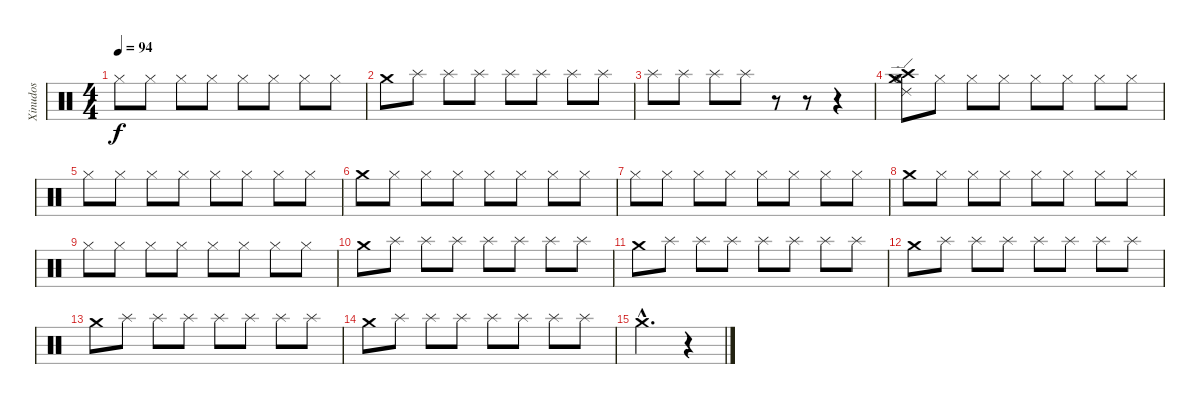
\track ("Xinudos" "Xinudos") {instrument percussion}
\staff {score}
\articulation defaults
\ts (4 4)
\tempo 94
\clef neutral
\ks c "Hi-Hat (closed)".8{dy f} "Hi-Hat (closed)".8 "Hi-Hat (closed)".8 "Hi-Hat (closed)".8 "Hi-Hat (closed)".8 "Hi-Hat (closed)".8 "Hi-Hat (closed)".8 "Hi-Hat (closed)".8
|
"Crash medium (hit)".8 "Splash (hit)".8 "Splash (hit)".8 "Splash (hit)".8 "Splash (hit)".8 "Splash (hit)".8 "Splash (hit)".8 "Splash (hit)".8 |
"Splash (hit)".8 "Splash (hit)".8 "Splash (hit)".8 "Splash (hit)".8 r.8 r.8 r.4 |
("Crash medium (hit)" "Ride (edge) 2" "Hi-Hat (open)" "Crash high (hit)").8 "Hi-Hat (closed)".8 "Hi-Hat (closed)".8 "Hi-Hat (closed)".8 "Hi-Hat (closed)".8 "Hi-Hat (closed)".8 "Hi-Hat (closed)".8 "Hi-Hat (closed)".8 |
"Hi-Hat (closed)".8 "Hi-Hat (closed)".8 "Hi-Hat (closed)".8 "Hi-Hat (closed)".8 "Hi-Hat (closed)".8 "Hi-Hat (closed)".8 "Hi-Hat (closed)".8 "Hi-Hat (closed)".8 |
"Crash medium (hit)".8 "Hi-Hat (closed)".8 "Hi-Hat (closed)".8 "Hi-Hat (closed)".8 "Hi-Hat (closed)".8 "Hi-Hat (closed)".8 "Hi-Hat (closed)".8 "Hi-Hat (closed)".8 |
"Hi-Hat (closed)".8 "Hi-Hat (closed)".8 "Hi-Hat (closed)".8 "Hi-Hat (closed)".8 "Hi-Hat (closed)".8 "Hi-Hat (closed)".8 "Hi-Hat (closed)".8 "Hi-Hat (closed)".8 |
"Crash medium (hit)".8 "Hi-Hat (closed)".8 "Hi-Hat (closed)".8 "Hi-Hat (closed)".8 "Hi-Hat (closed)".8 "Hi-Hat (closed)".8 "Hi-Hat (closed)".8 "Hi-Hat (closed)".8 |
"Hi-Hat (closed)".8 "Hi-Hat (closed)".8 "Hi-Hat (closed)".8 "Hi-Hat (closed)".8 "Hi-Hat (closed)".8 "Hi-Hat (closed)".8 "Hi-Hat (closed)".8 "Hi-Hat (closed)".8 |
"Crash medium (hit)".8 "Splash (hit)".8 "Splash (hit)".8 "Splash (hit)".8 "Splash (hit)".8 "Splash (hit)".8 "Splash (hit)".8 "Splash (hit)".8 |
"Crash medium (hit)".8 "Splash (hit)".8 "Splash (hit)".8 "Splash (hit)".8 "Splash (hit)".8 "Splash (hit)".8 "Splash (hit)".8 "Splash (hit)".8 |
"Crash medium (hit)".8 "Splash (hit)".8 "Splash (hit)".8 "Splash (hit)".8 "Splash (hit)".8 "Splash (hit)".8 "Splash (hit)".8 "Splash (hit)".8 |
"Crash medium (hit)".8 "Splash (hit)".8 "Splash (hit)".8 "Splash (hit)".8 "Splash (hit)".8 "Splash (hit)".8 "Splash (hit)".8 "Splash (hit)".8 |
"Crash medium (hit)".8 "Splash (hit)".8 "Splash (hit)".8 "Splash (hit)".8 "Splash (hit)".8 "Splash (hit)".8 "Splash (hit)".8 "Splash (hit)".8 |
"Crash medium (hit)"{hac}.2{d} r.4
